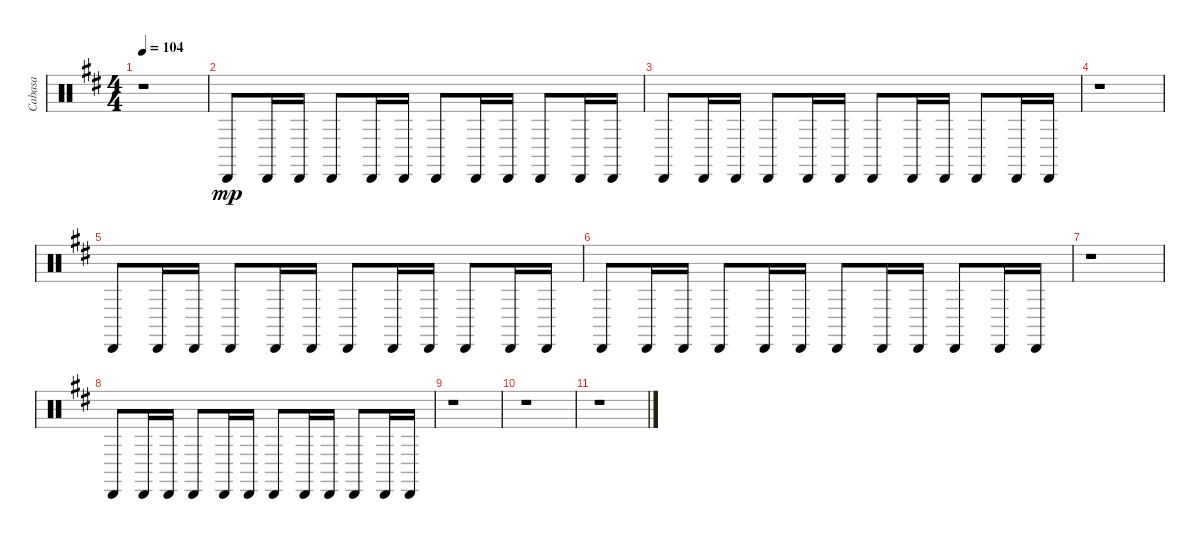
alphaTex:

\track ("Cabasa" "Cabasa") {instrument percussion}
\staff {score}
\articulation defaults
\ts (4 4)
\tempo 104
\clef neutral
\ks bminor
r.1{dy mp} |
"Cabasa (hit)".8 "Cabasa (hit)".16 "Cabasa (hit)".16 "Cabasa (hit)".8 "Cabasa (hit)".16 "Cabasa (hit)".16 "Cabasa (hit)".8 "Cabasa (hit)".16 "Cabasa (hit)".16 "Cabasa (hit)".8 "Cabasa (hit)".16 "Cabasa (hit)".16 |
"Cabasa (hit)".8 "Cabasa (hit)".16 "Cabasa (hit)".16 "Cabasa (hit)".8 "Cabasa (hit)".16 "Cabasa (hit)".16 "Cabasa (hit)".8 "Cabasa (hit)".16 "Cabasa (hit)".16 "Cabasa (hit)".8 "Cabasa (hit)".16 "Cabasa (hit)".16 |
r.1 |
"Cabasa (hit)".8 "Cabasa (hit)".16 "Cabasa (hit)".16 "Cabasa (hit)".8 "Cabasa (hit)".16 "Cabasa (hit)".16 "Cabasa (hit)".8 "Cabasa (hit)".16 "Cabasa (hit)".16 "Cabasa (hit)".8 "Cabasa (hit)".16 "Cabasa (hit)".16 |
"Cabasa (hit)".8 "Cabasa (hit)".16 "Cabasa (hit)".16 "Cabasa (hit)".8 "Cabasa (hit)".16 "Cabasa (hit)".16 "Cabasa (hit)".8 "Cabasa (hit)".16 "Cabasa (hit)".16 "Cabasa (hit)".8 "Cabasa (hit)".16 "Cabasa (hit)".16 |
r.1 |
"Cabasa (hit)".8 "Cabasa (hit)".16 "Cabasa (hit)".16 "Cabasa (hit)".8 "Cabasa (hit)".16 "Cabasa (hit)".16 "Cabasa (hit)".8 "Cabasa (hit)".16 "Cabasa (hit)".16 "Cabasa (hit)".8 "Cabasa (hit)".16 "Cabasa (hit)".16 |
r.1 |
r.1 |
r.1
